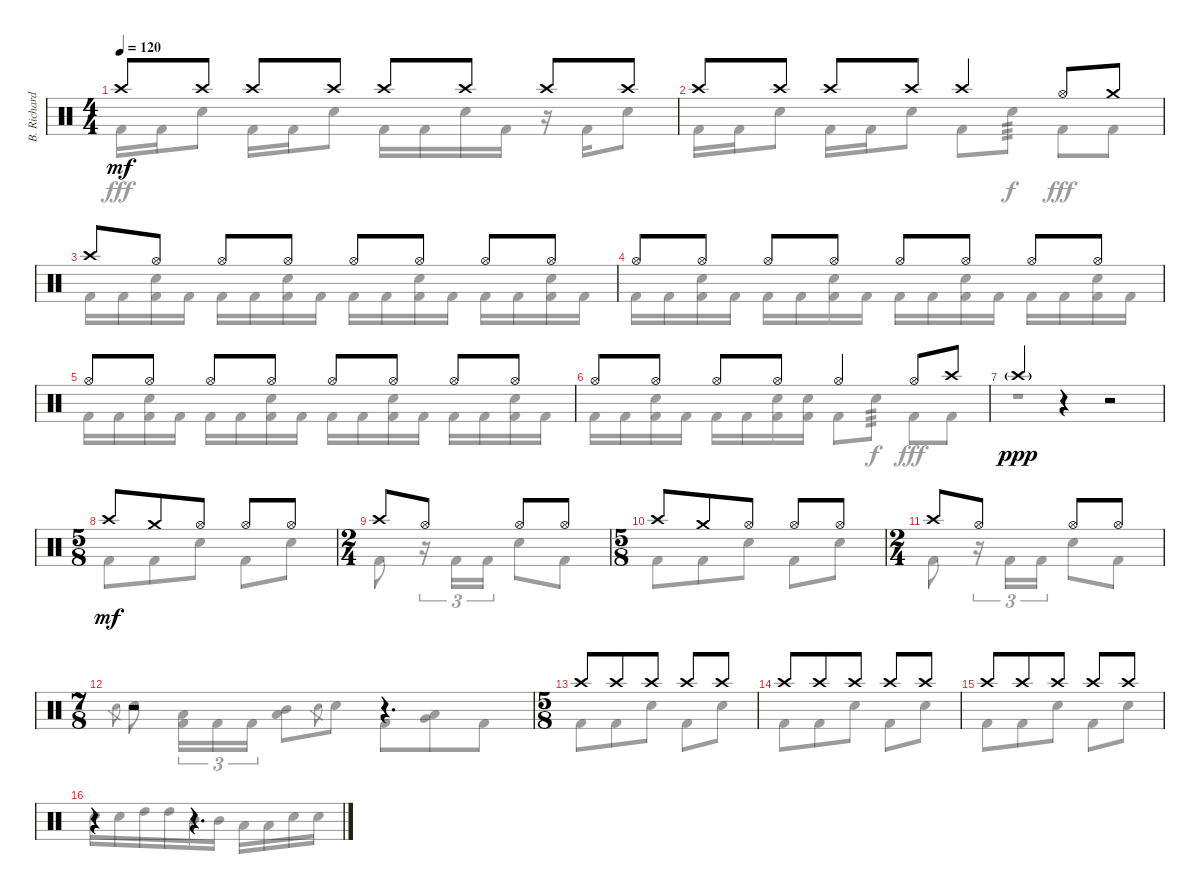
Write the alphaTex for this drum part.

\track ("B. Richardson Drums" "B. Richard") {instrument percussion}
\staff {score}
\articulation defaults
\voice
\ts (4 4)
\tempo 120
\clef neutral
\ks c "Crash high (hit)".8{dy mf} "Crash high (hit)".8 "Crash high (hit)".8 "Crash high (hit)".8 "Crash high (hit)".8 "Crash high (hit)".8 "Crash high (hit)".8 "Crash high (hit)".8
|
"Crash high (hit)".8 "Crash high (hit)".8 "Crash high (hit)".8 "Crash high (hit)".8 "Crash high (hit)".4 "Hi-Hat (open)".8 "Crash medium (hit)".8 |
"Crash high (hit)".8 "Hi-Hat (open)".8 "Hi-Hat (open)".8 "Hi-Hat (open)".8 "Hi-Hat (open)".8 "Hi-Hat (open)".8 "Hi-Hat (open)".8 "Hi-Hat (open)".8 |
"Hi-Hat (open)".8 "Hi-Hat (open)".8 "Hi-Hat (open)".8 "Hi-Hat (open)".8 "Hi-Hat (open)".8 "Hi-Hat (open)".8 "Hi-Hat (open)".8 "Hi-Hat (open)".8 |
"Hi-Hat (open)".8 "Hi-Hat (open)".8 "Hi-Hat (open)".8 "Hi-Hat (open)".8 "Hi-Hat (open)".8 "Hi-Hat (open)".8 "Hi-Hat (open)".8 "Hi-Hat (open)".8 |
"Hi-Hat (open)".8 "Hi-Hat (open)".8 "Hi-Hat (open)".8 "Hi-Hat (open)".8 "Hi-Hat (open)".4 "Hi-Hat (open)".8 "Crash high (hit)".8 |
"Crash high (hit)"{g}.4{dy ppp} r.4 r.2 |
\ts (5 8)
"Crash high (hit)".8{dy mf} "Crash medium (hit)".8 "Hi-Hat (open)".8 "Hi-Hat (open)".8 "Hi-Hat (open)".8 |
\ts (2 4)
"Crash high (hit)".8 "Hi-Hat (open)".8 "Hi-Hat (open)".8 "Hi-Hat (open)".8 |
\ts (5 8)
"Crash high (hit)".8 "Crash medium (hit)".8 "Hi-Hat (open)".8 "Hi-Hat (open)".8 "Hi-Hat (open)".8 |
\ts (2 4)
"Crash high (hit)".8 "Hi-Hat (open)".8 "Hi-Hat (open)".8 "Hi-Hat (open)".8 |
\ts (7 8)
r.2 r.4{d} |
\ts (5 8)
"Crash high (hit)".8 "Crash high (hit)".8 "Crash high (hit)".8 "Crash high (hit)".8 "Crash high (hit)".8 |
"Crash high (hit)".8 "Crash high (hit)".8 "Crash high (hit)".8 "Crash high (hit)".8 "Crash high (hit)".8 |
"Crash high (hit)".8 "Crash high (hit)".8 "Crash high (hit)".8 "Crash high (hit)".8 "Crash high (hit)".8 |
r.4 r.4{d}
\voice
\clef neutral
\ottava regular
\simile none
\ks c "Kick (hit) 2".16{dy fff} "Kick (hit) 2".16 "Electric Snare (hit)".8 "Kick (hit) 2".16 "Kick (hit) 2".16 "Electric Snare (hit)".8 "Kick (hit) 2".16 "Kick (hit) 2".16 "Electric Snare (hit)".16 "Kick (hit) 2".16
r.16 "Kick (hit) 2".16 "Electric Snare (hit)".8 |
"Kick (hit) 2".16 "Kick (hit) 2".16 "Electric Snare (hit)".8 "Kick (hit) 2".16 "Kick (hit) 2".16 "Electric Snare (hit)".8 "Kick (hit) 2".8 "Electric Snare (hit)".8{tp 3 dy f} "Kick (hit) 2".8{dy fff} "Kick (hit) 2".8 |
"Kick (hit) 2".16 "Kick (hit) 2".16 ("Electric Snare (hit)" "Kick (hit) 2").16 "Kick (hit) 2".16 "Kick (hit) 2".16 "Kick (hit) 2".16 ("Electric Snare (hit)" "Kick (hit) 2").16 "Kick (hit) 2".16 "Kick (hit) 2".16 "Kick (hit) 2".16 ("Electric Snare (hit)" "Kick (hit) 2").16 "Kick (hit) 2".16 "Kick (hit) 2".16 "Kick (hit) 2".16 ("Electric Snare (hit)" "Kick (hit) 2").16 "Kick (hit) 2".16 |
"Kick (hit) 2".16 "Kick (hit) 2".16 ("Electric Snare (hit)" "Kick (hit) 2").16 "Kick (hit) 2".16 "Kick (hit) 2".16 "Kick (hit) 2".16 ("Electric Snare (hit)" "Kick (hit) 2").16 "Kick (hit) 2".16 "Kick (hit) 2".16 "Kick (hit) 2".16 ("Electric Snare (hit)" "Kick (hit) 2").16 "Kick (hit) 2".16 "Kick (hit) 2".16 "Kick (hit) 2".16 ("Electric Snare (hit)" "Kick (hit) 2").16 "Kick (hit) 2".16 |
"Kick (hit) 2".16 "Kick (hit) 2".16 ("Electric Snare (hit)" "Kick (hit) 2").16 "Kick (hit) 2".16 "Kick (hit) 2".16 "Kick (hit) 2".16 ("Electric Snare (hit)" "Kick (hit) 2").16 "Kick (hit) 2".16 "Kick (hit) 2".16 "Kick (hit) 2".16 ("Electric Snare (hit)" "Kick (hit) 2").16 "Kick (hit) 2".16 "Kick (hit) 2".16 "Kick (hit) 2".16 ("Electric Snare (hit)" "Kick (hit) 2").16 "Kick (hit) 2".16 |
"Kick (hit) 2".16 "Kick (hit) 2".16 ("Electric Snare (hit)" "Kick (hit) 2").16 "Kick (hit) 2".16 "Kick (hit) 2".16 "Kick (hit) 2".16 ("Electric Snare (hit)" "Kick (hit) 2").16 ("Electric Snare (hit)" "Kick (hit) 2").16 "Kick (hit) 2".8 "Electric Snare (hit)".8{tp 3 dy f} "Kick (hit) 2".8{dy fff} "Kick (hit) 2".8 |
r.1 |
"Kick (hit) 2".8 "Kick (hit) 2".8 "Electric Snare (hit)".8 "Kick (hit) 2".8 "Electric Snare (hit)".8 |
"Kick (hit) 2".8 r.16{tu (3 2)} "Kick (hit) 2".16{tu (3 2)} "Kick (hit) 2".16{tu (3 2)} "Electric Snare (hit)".8 "Kick (hit) 2".8 |
"Kick (hit) 2".8 "Kick (hit) 2".8 "Electric Snare (hit)".8 "Kick (hit) 2".8 "Electric Snare (hit)".8 |
"Kick (hit) 2".8 r.16{tu (3 2)} "Kick (hit) 2".16{tu (3 2)} "Kick (hit) 2".16{tu (3 2)} "Electric Snare (hit)".8 "Kick (hit) 2".8 |
"Electric Snare (hit)".8{gr} "Electric Snare (hit)".8 ("Low Tom (hit)" "Kick (hit) 2").16{tu (3 2)} "Kick (hit) 2".16{tu (3 2)} "Kick (hit) 2".16{tu (3 2)} ("Mid Tom (hit)" "Low Tom (hit)").8 "Electric Snare (hit)".8{gr} "Electric Snare (hit)".8 "Kick (hit) 2".8 ("Low Tom (hit)" "Very Low Tom (hit)").8 "Kick (hit) 2".8 |
"Kick (hit) 2".8 "Kick (hit) 2".8 "Electric Snare (hit)".8 "Kick (hit) 2".8 "Electric Snare (hit)".8 |
"Kick (hit) 2".8 "Kick (hit) 2".8 "Electric Snare (hit)".8 "Kick (hit) 2".8 "Electric Snare (hit)".8 |
"Kick (hit) 2".8 "Kick (hit) 2".8 "Electric Snare (hit)".8 "Kick (hit) 2".8 "Electric Snare (hit)".8 |
"Electric Snare (hit)".16 "Electric Snare (hit)".16 "High Tom (hit)".16 "High Tom (hit)".16 "Mid Tom (hit)".16 "Mid Tom (hit)".16 "Low Tom (hit)".16 "Low Tom (hit)".16 "Electric Snare (hit)".16 "Electric Snare (hit)".16
